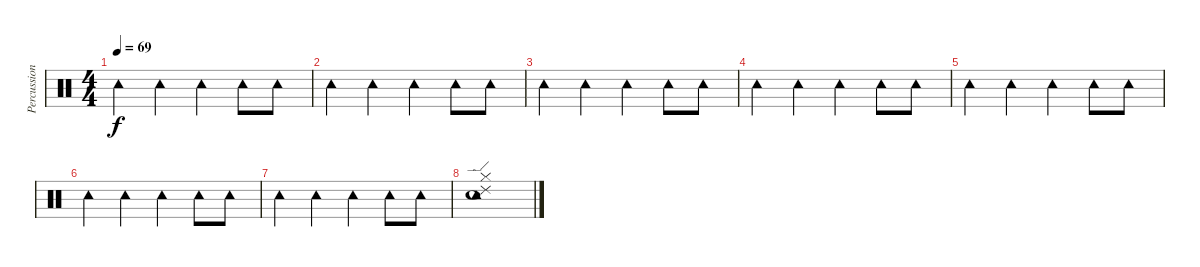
\track ("Percussion" "Percussion") {instrument percussion}
\staff {score}
\articulation defaults
\ts (4 4)
\tempo 69
\clef neutral
\ks c "Tambourine (hit)".4{dy f} "Tambourine (hit)".4 "Tambourine (hit)".4 "Tambourine (hit)".8 "Tambourine (hit)".8
|
"Tambourine (hit)".4 "Tambourine (hit)".4 "Tambourine (hit)".4 "Tambourine (hit)".8 "Tambourine (hit)".8 |
"Tambourine (hit)".4 "Tambourine (hit)".4 "Tambourine (hit)".4 "Tambourine (hit)".8 "Tambourine (hit)".8 |
"Tambourine (hit)".4 "Tambourine (hit)".4 "Tambourine (hit)".4 "Tambourine (hit)".8 "Tambourine (hit)".8 |
"Tambourine (hit)".4 "Tambourine (hit)".4 "Tambourine (hit)".4 "Tambourine (hit)".8 "Tambourine (hit)".8 |
"Tambourine (hit)".4 "Tambourine (hit)".4 "Tambourine (hit)".4 "Tambourine (hit)".8 "Tambourine (hit)".8 |
"Tambourine (hit)".4 "Tambourine (hit)".4 "Tambourine (hit)".4 "Tambourine (hit)".8 "Tambourine (hit)".8 |
("Tambourine (hit)" "Snare (hit) 2" "Hi-Hat (closed)" "Ride (edge) 2").1
